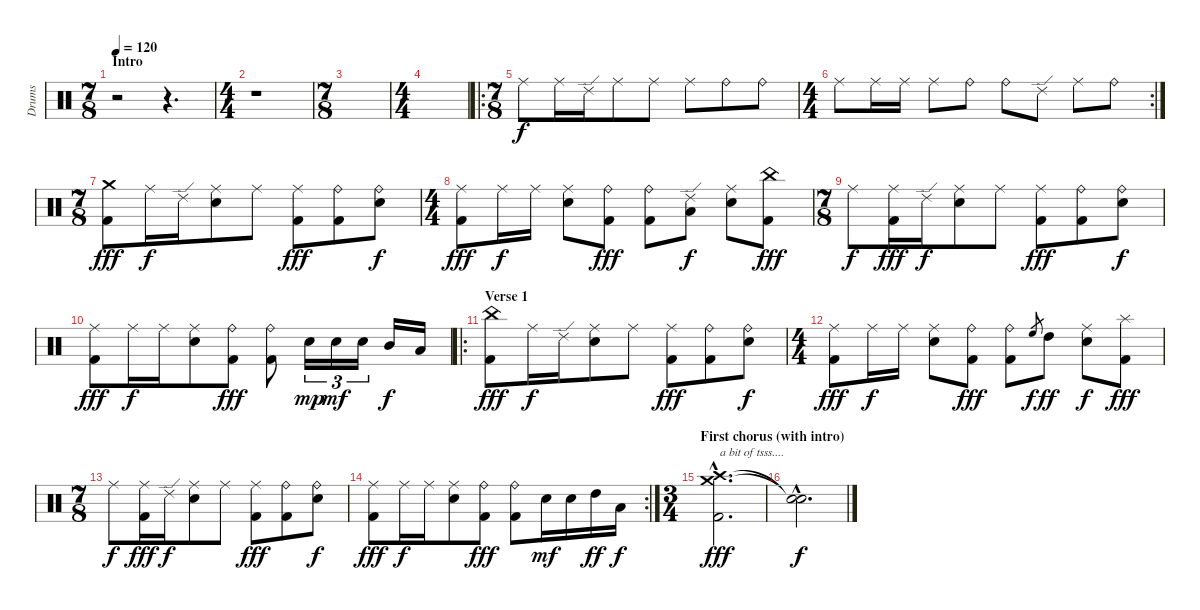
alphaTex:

\track ("Drums" "Drums") {instrument percussion}
\staff {score}
\articulation defaults
\ts (7 8)
\section ("" "Intro")
\tempo 120
\clef neutral
\ks c
r.2{dy f} r.4{d} |
\ts (4 4)
r.1 |
\ts (7 8)
|
\ts (4 4)
|
\ro
\ts (7 8)
"Ride (middle)".8 "Ride (middle)".16 "Ride (edge) 2".16 "Ride (middle)".8 "Ride (middle)".8 "Ride (middle)".8 "Ride (bell)".8 "Ride (bell)".8 |
\rc 2
\ts (4 4)
"Ride (middle)".8 "Ride (middle)".16 "Ride (middle)".16 "Ride (middle)".8 "Ride (bell)".8 "Ride (bell)".8 "Ride (edge) 2".8 "Ride (middle)".8 "Ride (bell)".8 |
\ts (7 8)
("Crash medium (hit)" "Kick (hit) 2").8{dy fff} "Ride (middle)".16{dy f} "Ride (edge) 2".16 ("Ride (middle)" "Electric Snare (hit)").8 "Ride (middle)".8 ("Ride (middle)" "Kick (hit) 2").8{dy fff} ("Ride (bell)" "Kick (hit) 2").8 ("Ride (bell)" "Electric Snare (hit)").8{dy f} |
\ts (4 4)
("Ride (middle)" "Kick (hit) 2").8{dy fff} "Ride (middle)".16{dy f} "Ride (middle)".16 ("Ride (middle)" "Electric Snare (hit)").8 ("Ride (bell)" "Kick (hit) 2").8{dy fff} ("Ride (bell)" "Kick (hit) 2").8 ("Ride (edge) 2" "Low Tom (hit)").8{dy f} ("Ride (middle)" "Electric Snare (hit)").8 ("China (hit)" "Kick (hit) 2").8{dy fff} |
\ts (7 8)
"Ride (middle)".8{dy f} ("Ride (middle)" "Kick (hit) 2").16{dy fff} "Ride (edge) 2".16{dy f} ("Ride (middle)" "Electric Snare (hit)").8 "Ride (middle)".8 ("Ride (middle)" "Kick (hit) 2").8{dy fff} ("Ride (bell)" "Kick (hit) 2").8 ("Ride (bell)" "Electric Snare (hit)").8{dy f} |
("Ride (middle)" "Kick (hit) 2").8{dy fff} "Ride (middle)".16{dy f} "Ride (middle)".16 ("Ride (middle)" "Electric Snare (hit)").8 ("Ride (bell)" "Kick (hit) 2").8{dy fff} ("Ride (bell)" "Kick (hit) 2").8 "Electric Snare (hit)".16{tu (3 2) dy mp} "Electric Snare (hit)".16{tu (3 2) dy mf} "Electric Snare (hit)".16{tu (3 2)} "Mid Tom (hit)".16{dy f} "Low Tom (hit)".16 |
\ro
\section ("" "Verse 1")
("China (hit)" "Kick (hit) 2").8{dy fff} "Ride (middle)".16{dy f} "Ride (edge) 2".16 ("Ride (middle)" "Electric Snare (hit)").8 "Ride (middle)".8 ("Ride (middle)" "Kick (hit) 2").8{dy fff} ("Ride (bell)" "Kick (hit) 2").8 ("Ride (bell)" "Electric Snare (hit)").8{dy f} |
\ts (4 4)
("Ride (middle)" "Kick (hit) 2").8{dy fff} "Ride (middle)".16{dy f} "Ride (middle)".16 ("Ride (middle)" "Electric Snare (hit)").8 ("Ride (bell)" "Kick (hit) 2").8{dy fff} ("Ride (bell)" "Kick (hit) 2").8 "High Floor Tom (hit)".8{gr dy f} "High Tom (hit)".8{dy ff} ("Ride (middle)" "Electric Snare (hit)").8{dy f} ("Splash (hit)" "Kick (hit) 2").8{dy fff} |
\ts (7 8)
"Ride (middle)".8{dy f} ("Ride (middle)" "Kick (hit) 2").16{dy fff} "Ride (edge) 2".16{dy f} ("Ride (middle)" "Electric Snare (hit)").8 "Ride (middle)".8 ("Ride (middle)" "Kick (hit) 2").8{dy fff} ("Ride (bell)" "Kick (hit) 2").8 ("Ride (bell)" "Electric Snare (hit)").8{dy f} |
\rc 2
("Ride (middle)" "Kick (hit) 2").8{dy fff} "Ride (middle)".16{dy f} "Ride (middle)".16 ("Ride (middle)" "Electric Snare (hit)").8 ("Ride (bell)" "Kick (hit) 2").8{dy fff} ("Ride (bell)" "Kick (hit) 2").8 "Electric Snare (hit)".16{dy mf} "Electric Snare (hit)".16 "High Tom (hit)".16{dy ff} "Low Tom (hit)".16{dy f} |
\ts (3 4)
\section ("" "First chorus (with intro)")
("Crash medium (hit)"{hac} "Crash high (hit)"{hac} "Kick (hit) 2"{hac}).2{d txt "a bit of tsss...." dy fff} |
("Snare (hit)"{hac t} "Snare (hit)"{hac t}).2{d dy f}
